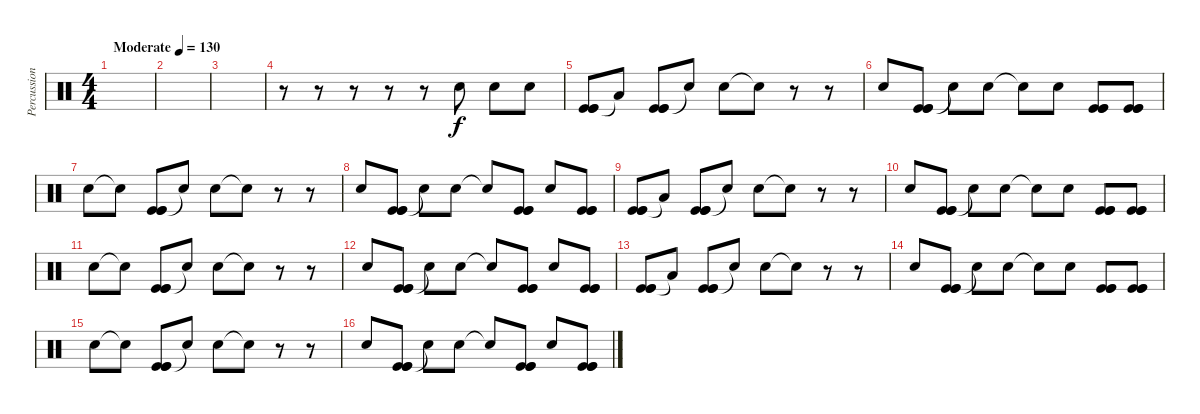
\track ("Percussion" "Percussion") {instrument percussion}
\staff {score}
\articulation defaults
\ts (4 4)
\tempo (130 "Moderate")
\clef neutral
\ks c
|
|
|
r.8 r.8 r.8 r.8 r.8 "Electric Snare (hit)".8 "Electric Snare (hit)".8 "Electric Snare (hit)".8 |
("Kick (hit)" "Kick (hit)" "Kick (hit)").8 "Low Tom (hit)"{t}.8 ("Kick (hit)" "Kick (hit)" "Kick (hit)").8 "Snare (hit)"{t}.8 "Electric Snare (hit)".8 "Snare (hit)"{t}.8 r.8 r.8 |
"Electric Snare (hit)".8 ("Kick (hit)" "Kick (hit)" "Kick (hit)").8 "Electric Snare (hit)"{t}.8 "Electric Snare (hit)".8 "Snare (hit)"{t}.8 "Electric Snare (hit)".8 ("Kick (hit)" "Kick (hit)" "Kick (hit)").8 ("Kick (hit)" "Kick (hit)" "Kick (hit)").8 |
"Electric Snare (hit)".8 "Snare (hit)"{t}.8 ("Kick (hit)" "Kick (hit)" "Kick (hit)").8 "Snare (hit)"{t}.8 "Electric Snare (hit)".8 "Snare (hit)"{t}.8 r.8 r.8 |
"Electric Snare (hit)".8 ("Kick (hit)" "Kick (hit)" "Kick (hit)").8 "Electric Snare (hit)"{t}.8 "Electric Snare (hit)".8 "Snare (hit)"{t}.8 ("Kick (hit)" "Kick (hit)" "Kick (hit)").8 "Electric Snare (hit)".8 ("Kick (hit)" "Kick (hit)" "Kick (hit)").8 |
("Kick (hit)" "Kick (hit)" "Kick (hit)").8 "Low Tom (hit)"{t}.8 ("Kick (hit)" "Kick (hit)" "Kick (hit)").8 "Snare (hit)"{t}.8 "Electric Snare (hit)".8 "Snare (hit)"{t}.8 r.8 r.8 |
"Electric Snare (hit)".8 ("Kick (hit)" "Kick (hit)" "Kick (hit)").8 "Electric Snare (hit)"{t}.8 "Electric Snare (hit)".8 "Snare (hit)"{t}.8 "Electric Snare (hit)".8 ("Kick (hit)" "Kick (hit)" "Kick (hit)").8 ("Kick (hit)" "Kick (hit)" "Kick (hit)").8 |
"Electric Snare (hit)".8 "Snare (hit)"{t}.8 ("Kick (hit)" "Kick (hit)" "Kick (hit)").8 "Snare (hit)"{t}.8 "Electric Snare (hit)".8 "Snare (hit)"{t}.8 r.8 r.8 |
"Electric Snare (hit)".8 ("Kick (hit)" "Kick (hit)" "Kick (hit)").8 "Electric Snare (hit)"{t}.8 "Electric Snare (hit)".8 "Snare (hit)"{t}.8 ("Kick (hit)" "Kick (hit)" "Kick (hit)").8 "Electric Snare (hit)".8 ("Kick (hit)" "Kick (hit)" "Kick (hit)").8 |
("Kick (hit)" "Kick (hit)" "Kick (hit)").8 "Low Tom (hit)"{t}.8 ("Kick (hit)" "Kick (hit)" "Kick (hit)").8 "Snare (hit)"{t}.8 "Electric Snare (hit)".8 "Snare (hit)"{t}.8 r.8 r.8 |
"Electric Snare (hit)".8 ("Kick (hit)" "Kick (hit)" "Kick (hit)").8 "Electric Snare (hit)"{t}.8 "Electric Snare (hit)".8 "Snare (hit)"{t}.8 "Electric Snare (hit)".8 ("Kick (hit)" "Kick (hit)" "Kick (hit)").8 ("Kick (hit)" "Kick (hit)" "Kick (hit)").8 |
"Electric Snare (hit)".8 "Snare (hit)"{t}.8 ("Kick (hit)" "Kick (hit)" "Kick (hit)").8 "Snare (hit)"{t}.8 "Electric Snare (hit)".8 "Snare (hit)"{t}.8 r.8 r.8 |
"Electric Snare (hit)".8 ("Kick (hit)" "Kick (hit)" "Kick (hit)").8 "Electric Snare (hit)"{t}.8 "Electric Snare (hit)".8 "Snare (hit)"{t}.8 ("Kick (hit)" "Kick (hit)" "Kick (hit)").8 "Electric Snare (hit)".8 ("Kick (hit)" "Kick (hit)" "Kick (hit)").8
